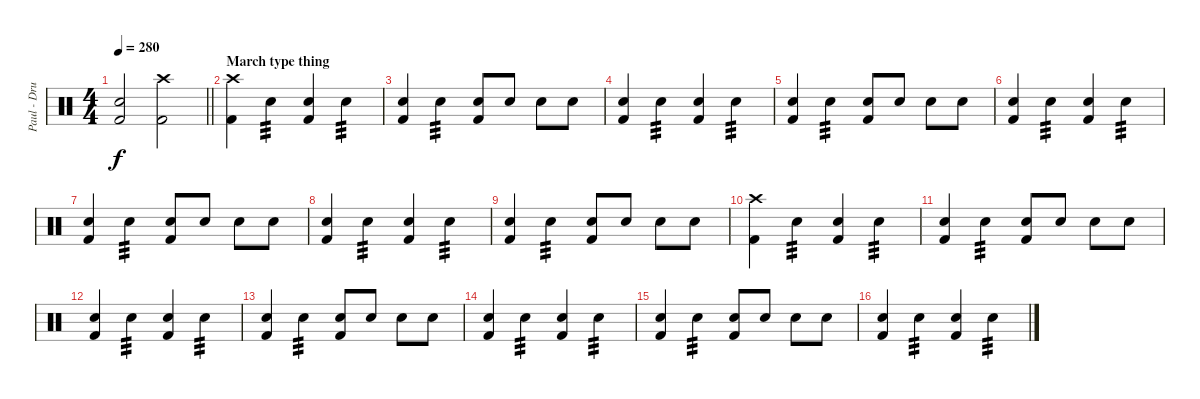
\track ("Paul - Drums" "Paul - Dru") {instrument percussion}
\staff {score}
\articulation defaults
\ts (4 4)
\tempo 280
\clef neutral
\barLineRight lightlight
\ks c
("Electric Snare (hit)" "Kick (hit) 2").2{dy f} ("Crash high (hit)" "Kick (hit) 2").2 |
\section ("" "March type thing")
("Crash high (hit)" "Kick (hit) 2").4 "Electric Snare (hit)".4{tp 3} ("Electric Snare (hit)" "Kick (hit) 2").4 "Electric Snare (hit)".4{tp 3} |
("Electric Snare (hit)" "Kick (hit) 2").4 "Electric Snare (hit)".4{tp 3} ("Electric Snare (hit)" "Kick (hit) 2").8 "Electric Snare (hit)".8 "Electric Snare (hit)".8 "Electric Snare (hit)".8 |
("Electric Snare (hit)" "Kick (hit) 2").4 "Electric Snare (hit)".4{tp 3} ("Electric Snare (hit)" "Kick (hit) 2").4 "Electric Snare (hit)".4{tp 3} |
("Electric Snare (hit)" "Kick (hit) 2").4 "Electric Snare (hit)".4{tp 3} ("Electric Snare (hit)" "Kick (hit) 2").8 "Electric Snare (hit)".8 "Electric Snare (hit)".8 "Electric Snare (hit)".8 |
("Electric Snare (hit)" "Kick (hit) 2").4 "Electric Snare (hit)".4{tp 3} ("Electric Snare (hit)" "Kick (hit) 2").4 "Electric Snare (hit)".4{tp 3} |
("Electric Snare (hit)" "Kick (hit) 2").4 "Electric Snare (hit)".4{tp 3} ("Electric Snare (hit)" "Kick (hit) 2").8 "Electric Snare (hit)".8 "Electric Snare (hit)".8 "Electric Snare (hit)".8 |
("Electric Snare (hit)" "Kick (hit) 2").4 "Electric Snare (hit)".4{tp 3} ("Electric Snare (hit)" "Kick (hit) 2").4 "Electric Snare (hit)".4{tp 3} |
("Electric Snare (hit)" "Kick (hit) 2").4 "Electric Snare (hit)".4{tp 3} ("Electric Snare (hit)" "Kick (hit) 2").8 "Electric Snare (hit)".8 "Electric Snare (hit)".8 "Electric Snare (hit)".8 |
("Crash high (hit)" "Kick (hit) 2").4 "Electric Snare (hit)".4{tp 3} ("Electric Snare (hit)" "Kick (hit) 2").4 "Electric Snare (hit)".4{tp 3} |
("Electric Snare (hit)" "Kick (hit) 2").4 "Electric Snare (hit)".4{tp 3} ("Electric Snare (hit)" "Kick (hit) 2").8 "Electric Snare (hit)".8 "Electric Snare (hit)".8 "Electric Snare (hit)".8 |
("Electric Snare (hit)" "Kick (hit) 2").4 "Electric Snare (hit)".4{tp 3} ("Electric Snare (hit)" "Kick (hit) 2").4 "Electric Snare (hit)".4{tp 3} |
("Electric Snare (hit)" "Kick (hit) 2").4 "Electric Snare (hit)".4{tp 3} ("Electric Snare (hit)" "Kick (hit) 2").8 "Electric Snare (hit)".8 "Electric Snare (hit)".8 "Electric Snare (hit)".8 |
("Electric Snare (hit)" "Kick (hit) 2").4 "Electric Snare (hit)".4{tp 3} ("Electric Snare (hit)" "Kick (hit) 2").4 "Electric Snare (hit)".4{tp 3} |
("Electric Snare (hit)" "Kick (hit) 2").4 "Electric Snare (hit)".4{tp 3} ("Electric Snare (hit)" "Kick (hit) 2").8 "Electric Snare (hit)".8 "Electric Snare (hit)".8 "Electric Snare (hit)".8 |
("Electric Snare (hit)" "Kick (hit) 2").4 "Electric Snare (hit)".4{tp 3} ("Electric Snare (hit)" "Kick (hit) 2").4 "Electric Snare (hit)".4{tp 3}
